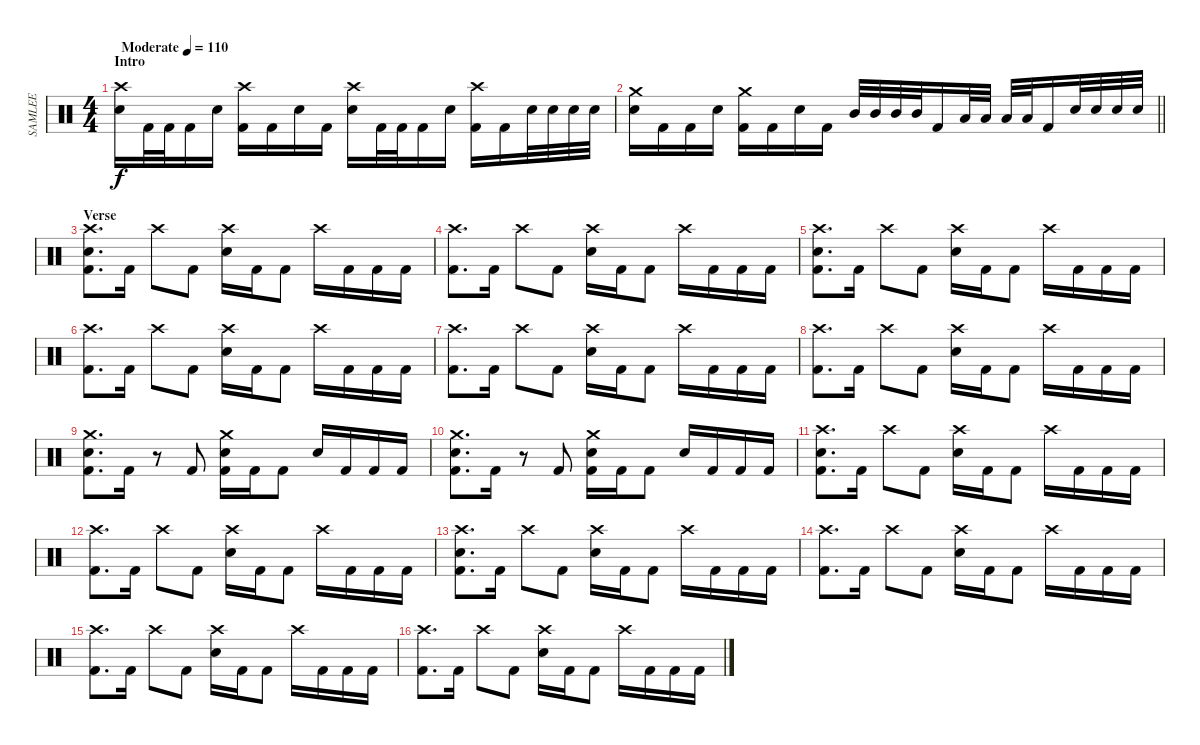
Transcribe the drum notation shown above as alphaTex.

\track ("SAMLEE" "SAMLEE") {instrument percussion}
\staff {score}
\articulation defaults
\ts (4 4)
\section ("" "Intro")
\tempo (110 "Moderate")
\clef neutral
\ks c
("Crash high (hit)" "Snare (hit) 2").16{dy f} "Kick (hit) 2".32 "Kick (hit) 2".32 "Kick (hit) 2".16 "Snare (hit) 2".16 ("Crash high (hit)" "Kick (hit) 2").16 "Kick (hit) 2".16 "Snare (hit) 2".16 "Kick (hit) 2".16 ("Crash high (hit)" "Snare (hit) 2").16 "Kick (hit) 2".32 "Kick (hit) 2".32 "Kick (hit) 2".16 "Snare (hit) 2".16 ("Crash high (hit)" "Kick (hit) 2").16 "Kick (hit) 2".16 "Snare (hit) 2".32 "Snare (hit) 2".32 "Snare (hit) 2".32 "Snare (hit) 2".32 |
\barLineRight lightlight
("Crash medium (hit)" "Snare (hit) 2").16 "Kick (hit) 2".16 "Kick (hit) 2".16 "Snare (hit) 2".16 ("Crash medium (hit)" "Kick (hit) 2").16 "Kick (hit) 2".16 "Snare (hit) 2".16 "Kick (hit) 2".16 "Mid Tom (hit)".32 "Mid Tom (hit)".32 "Mid Tom (hit)".32 "Mid Tom (hit)".32 "Kick (hit) 2".16 "Low Tom (hit)".32 "Low Tom (hit)".32 "Low Tom (hit)".32 "Low Tom (hit)".32 "Kick (hit) 2".16 "Snare (hit) 2".32 "Snare (hit) 2".32 "Snare (hit) 2".32 "Snare (hit) 2".32 |
\section ("" "Verse")
("Crash high (hit)" "Snare (hit) 2" "Kick (hit) 2").8{d} "Kick (hit) 2".16 "Crash high (hit)".8 "Kick (hit) 2".8 ("Crash high (hit)" "Snare (hit) 2").16 "Kick (hit) 2".16 "Kick (hit) 2".8 "Crash high (hit)".16 "Kick (hit) 2".16 "Kick (hit) 2".16 "Kick (hit) 2".16 |
("Crash high (hit)" "Kick (hit) 2").8{d} "Kick (hit) 2".16 "Crash high (hit)".8 "Kick (hit) 2".8 ("Crash high (hit)" "Snare (hit) 2").16 "Kick (hit) 2".16 "Kick (hit) 2".8 "Crash high (hit)".16 "Kick (hit) 2".16 "Kick (hit) 2".16 "Kick (hit) 2".16 |
("Crash high (hit)" "Snare (hit) 2" "Kick (hit) 2").8{d} "Kick (hit) 2".16 "Crash high (hit)".8 "Kick (hit) 2".8 ("Crash high (hit)" "Snare (hit) 2").16 "Kick (hit) 2".16 "Kick (hit) 2".8 "Crash high (hit)".16 "Kick (hit) 2".16 "Kick (hit) 2".16 "Kick (hit) 2".16 |
("Crash high (hit)" "Kick (hit) 2").8{d} "Kick (hit) 2".16 "Crash high (hit)".8 "Kick (hit) 2".8 ("Crash high (hit)" "Snare (hit) 2").16 "Kick (hit) 2".16 "Kick (hit) 2".8 "Crash high (hit)".16 "Kick (hit) 2".16 "Kick (hit) 2".16 "Kick (hit) 2".16 |
("Crash high (hit)" "Kick (hit) 2").8{d} "Kick (hit) 2".16 "Crash high (hit)".8 "Kick (hit) 2".8 ("Crash high (hit)" "Snare (hit) 2").16 "Kick (hit) 2".16 "Kick (hit) 2".8 "Crash high (hit)".16 "Kick (hit) 2".16 "Kick (hit) 2".16 "Kick (hit) 2".16 |
("Crash high (hit)" "Kick (hit) 2").8{d} "Kick (hit) 2".16 "Crash high (hit)".8 "Kick (hit) 2".8 ("Crash high (hit)" "Snare (hit) 2").16 "Kick (hit) 2".16 "Kick (hit) 2".8 "Crash high (hit)".16 "Kick (hit) 2".16 "Kick (hit) 2".16 "Kick (hit) 2".16 |
("Crash medium (hit)" "Snare (hit) 2" "Kick (hit) 2").8{d} "Kick (hit) 2".16 r.8 "Kick (hit) 2".8 ("Crash medium (hit)" "Snare (hit) 2" "Kick (hit) 2").16 "Kick (hit) 2".16 "Kick (hit) 2".8 "Snare (hit) 2".16 "Kick (hit) 2".16 "Kick (hit) 2".16 "Kick (hit) 2".16 |
("Crash medium (hit)" "Snare (hit) 2" "Kick (hit) 2").8{d} "Kick (hit) 2".16 r.8 "Kick (hit) 2".8 ("Crash medium (hit)" "Snare (hit) 2" "Kick (hit) 2").16 "Kick (hit) 2".16 "Kick (hit) 2".8 "Snare (hit) 2".16 "Kick (hit) 2".16 "Kick (hit) 2".16 "Kick (hit) 2".16 |
("Crash high (hit)" "Snare (hit) 2" "Kick (hit) 2").8{d} "Kick (hit) 2".16 "Crash high (hit)".8 "Kick (hit) 2".8 ("Crash high (hit)" "Snare (hit) 2").16 "Kick (hit) 2".16 "Kick (hit) 2".8 "Crash high (hit)".16 "Kick (hit) 2".16 "Kick (hit) 2".16 "Kick (hit) 2".16 |
("Crash high (hit)" "Kick (hit) 2").8{d} "Kick (hit) 2".16 "Crash high (hit)".8 "Kick (hit) 2".8 ("Crash high (hit)" "Snare (hit) 2").16 "Kick (hit) 2".16 "Kick (hit) 2".8 "Crash high (hit)".16 "Kick (hit) 2".16 "Kick (hit) 2".16 "Kick (hit) 2".16 |
("Crash high (hit)" "Snare (hit) 2" "Kick (hit) 2").8{d} "Kick (hit) 2".16 "Crash high (hit)".8 "Kick (hit) 2".8 ("Crash high (hit)" "Snare (hit) 2").16 "Kick (hit) 2".16 "Kick (hit) 2".8 "Crash high (hit)".16 "Kick (hit) 2".16 "Kick (hit) 2".16 "Kick (hit) 2".16 |
("Crash high (hit)" "Kick (hit) 2").8{d} "Kick (hit) 2".16 "Crash high (hit)".8 "Kick (hit) 2".8 ("Crash high (hit)" "Snare (hit) 2").16 "Kick (hit) 2".16 "Kick (hit) 2".8 "Crash high (hit)".16 "Kick (hit) 2".16 "Kick (hit) 2".16 "Kick (hit) 2".16 |
("Crash high (hit)" "Kick (hit) 2").8{d} "Kick (hit) 2".16 "Crash high (hit)".8 "Kick (hit) 2".8 ("Crash high (hit)" "Snare (hit) 2").16 "Kick (hit) 2".16 "Kick (hit) 2".8 "Crash high (hit)".16 "Kick (hit) 2".16 "Kick (hit) 2".16 "Kick (hit) 2".16 |
("Crash high (hit)" "Kick (hit) 2").8{d} "Kick (hit) 2".16 "Crash high (hit)".8 "Kick (hit) 2".8 ("Crash high (hit)" "Snare (hit) 2").16 "Kick (hit) 2".16 "Kick (hit) 2".8 "Crash high (hit)".16 "Kick (hit) 2".16 "Kick (hit) 2".16 "Kick (hit) 2".16
